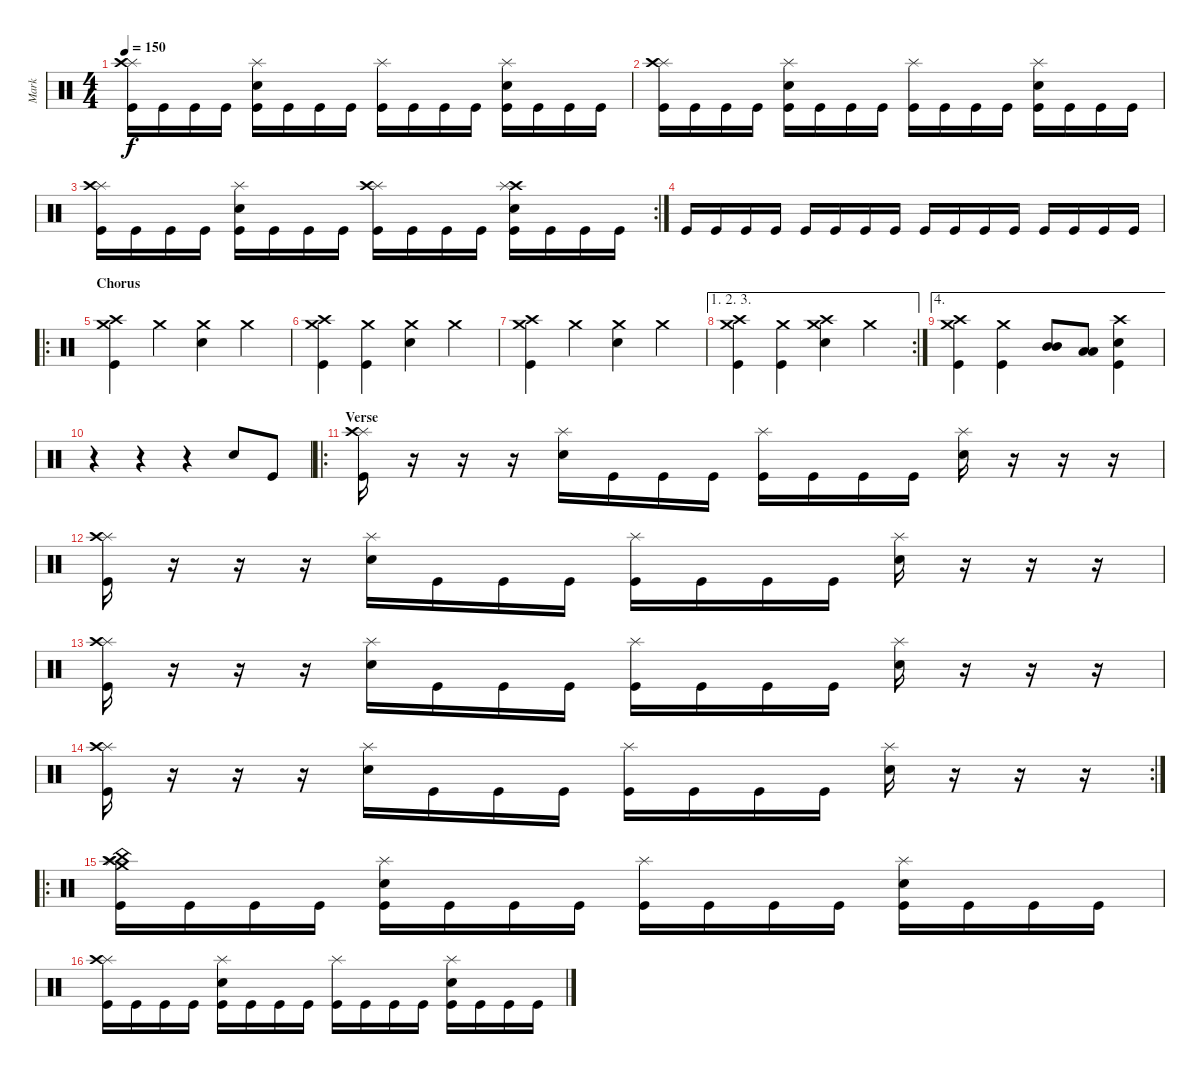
\track ("Mark" "Mark") {instrument percussion}
\staff {score}
\articulation defaults
\ts (4 4)
\tempo 150
\clef neutral
\ks c
("Splash (hit)" "Crash high (hit)" "Kick (hit)").16{dy f} "Kick (hit)".16 "Kick (hit)".16 "Kick (hit)".16 ("Splash (hit)" "Electric Snare (hit)" "Kick (hit)").16 "Kick (hit)".16 "Kick (hit)".16 "Kick (hit)".16 ("Splash (hit)" "Kick (hit)").16 "Kick (hit)".16 "Kick (hit)".16 "Kick (hit)".16 ("Splash (hit)" "Electric Snare (hit)" "Kick (hit)").16 "Kick (hit)".16 "Kick (hit)".16 "Kick (hit)".16 |
("Splash (hit)" "Crash high (hit)" "Kick (hit)").16 "Kick (hit)".16 "Kick (hit)".16 "Kick (hit)".16 ("Splash (hit)" "Electric Snare (hit)" "Kick (hit)").16 "Kick (hit)".16 "Kick (hit)".16 "Kick (hit)".16 ("Splash (hit)" "Kick (hit)").16 "Kick (hit)".16 "Kick (hit)".16 "Kick (hit)".16 ("Splash (hit)" "Electric Snare (hit)" "Kick (hit)").16 "Kick (hit)".16 "Kick (hit)".16 "Kick (hit)".16 |
\rc 2
("Splash (hit)" "Crash high (hit)" "Kick (hit)").16 "Kick (hit)".16 "Kick (hit)".16 "Kick (hit)".16 ("Splash (hit)" "Electric Snare (hit)" "Kick (hit)").16 "Kick (hit)".16 "Kick (hit)".16 "Kick (hit)".16 ("Splash (hit)" "Crash high (hit)" "Kick (hit)").16 "Kick (hit)".16 "Kick (hit)".16 "Kick (hit)".16 ("Crash high (hit)" "Splash (hit)" "Electric Snare (hit)" "Kick (hit)").16 "Kick (hit)".16 "Kick (hit)".16 "Kick (hit)".16 |
"Kick (hit)".16 "Kick (hit)".16 "Kick (hit)".16 "Kick (hit)".16 "Kick (hit)".16 "Kick (hit)".16 "Kick (hit)".16 "Kick (hit)".16 "Kick (hit)".16 "Kick (hit)".16 "Kick (hit)".16 "Kick (hit)".16 "Kick (hit)".16 "Kick (hit)".16 "Kick (hit)".16 "Kick (hit)".16 |
\ro
\section ("" "Chorus")
("Crash high (hit)" "Crash medium (hit)" "Kick (hit)").4 "Crash medium (hit)".4 ("Crash medium (hit)" "Electric Snare (hit)").4 "Crash medium (hit)".4 |
("Crash high (hit)" "Crash medium (hit)" "Kick (hit)").4 ("Crash medium (hit)" "Kick (hit)").4 ("Crash medium (hit)" "Electric Snare (hit)").4 "Crash medium (hit)".4 |
("Crash high (hit)" "Crash medium (hit)" "Kick (hit)").4 "Crash medium (hit)".4 ("Crash medium (hit)" "Electric Snare (hit)").4 "Crash medium (hit)".4 |
\ae (1 2 3)
\rc 2
("Crash high (hit)" "Crash medium (hit)" "Kick (hit)").4 ("Crash medium (hit)" "Kick (hit)").4 ("Crash high (hit)" "Crash medium (hit)" "Electric Snare (hit)").4 "Crash medium (hit)".4 |
\ae 4
("Crash high (hit)" "Crash medium (hit)" "Kick (hit)").4 ("Crash medium (hit)" "Kick (hit)").4 ("Mid Tom (hit)" "Mid Tom (hit)").8 ("Low Tom (hit)" "Low Tom (hit)").8 ("Crash high (hit)" "Kick (hit)" "Electric Snare (hit)").4 |
r.4 r.4 r.4 "Electric Snare (hit)".8 "Kick (hit)".8 |
\ro
\section ("" "Verse")
("Splash (hit)" "Crash high (hit)" "Kick (hit)").16 r.16 r.16 r.16 ("Splash (hit)" "Electric Snare (hit)").16 "Kick (hit)".16 "Kick (hit)".16 "Kick (hit)".16 ("Splash (hit)" "Kick (hit)").16 "Kick (hit)".16 "Kick (hit)".16 "Kick (hit)".16 ("Splash (hit)" "Electric Snare (hit)").16 r.16 r.16 r.16 |
("Splash (hit)" "Crash high (hit)" "Kick (hit)").16 r.16 r.16 r.16 ("Splash (hit)" "Electric Snare (hit)").16 "Kick (hit)".16 "Kick (hit)".16 "Kick (hit)".16 ("Splash (hit)" "Kick (hit)").16 "Kick (hit)".16 "Kick (hit)".16 "Kick (hit)".16 ("Splash (hit)" "Electric Snare (hit)").16 r.16 r.16 r.16 |
("Splash (hit)" "Crash high (hit)" "Kick (hit)").16 r.16 r.16 r.16 ("Splash (hit)" "Electric Snare (hit)").16 "Kick (hit)".16 "Kick (hit)".16 "Kick (hit)".16 ("Splash (hit)" "Kick (hit)").16 "Kick (hit)".16 "Kick (hit)".16 "Kick (hit)".16 ("Splash (hit)" "Electric Snare (hit)").16 r.16 r.16 r.16 |
\rc 2
("Splash (hit)" "Crash high (hit)" "Kick (hit)").16 r.16 r.16 r.16 ("Splash (hit)" "Electric Snare (hit)").16 "Kick (hit)".16 "Kick (hit)".16 "Kick (hit)".16 ("Splash (hit)" "Kick (hit)").16 "Kick (hit)".16 "Kick (hit)".16 "Kick (hit)".16 ("Splash (hit)" "Electric Snare (hit)").16 r.16 r.16 r.16 |
\ro
("China (hit)" "Crash medium (hit)" "Splash (hit)" "Crash high (hit)" "Kick (hit)").16 "Kick (hit)".16 "Kick (hit)".16 "Kick (hit)".16 ("Splash (hit)" "Electric Snare (hit)" "Kick (hit)").16 "Kick (hit)".16 "Kick (hit)".16 "Kick (hit)".16 ("Splash (hit)" "Kick (hit)").16 "Kick (hit)".16 "Kick (hit)".16 "Kick (hit)".16 ("Splash (hit)" "Electric Snare (hit)" "Kick (hit)").16 "Kick (hit)".16 "Kick (hit)".16 "Kick (hit)".16 |
("Splash (hit)" "Crash high (hit)" "Kick (hit)").16 "Kick (hit)".16 "Kick (hit)".16 "Kick (hit)".16 ("Splash (hit)" "Electric Snare (hit)" "Kick (hit)").16 "Kick (hit)".16 "Kick (hit)".16 "Kick (hit)".16 ("Splash (hit)" "Kick (hit)").16 "Kick (hit)".16 "Kick (hit)".16 "Kick (hit)".16 ("Splash (hit)" "Electric Snare (hit)" "Kick (hit)").16 "Kick (hit)".16 "Kick (hit)".16 "Kick (hit)".16
